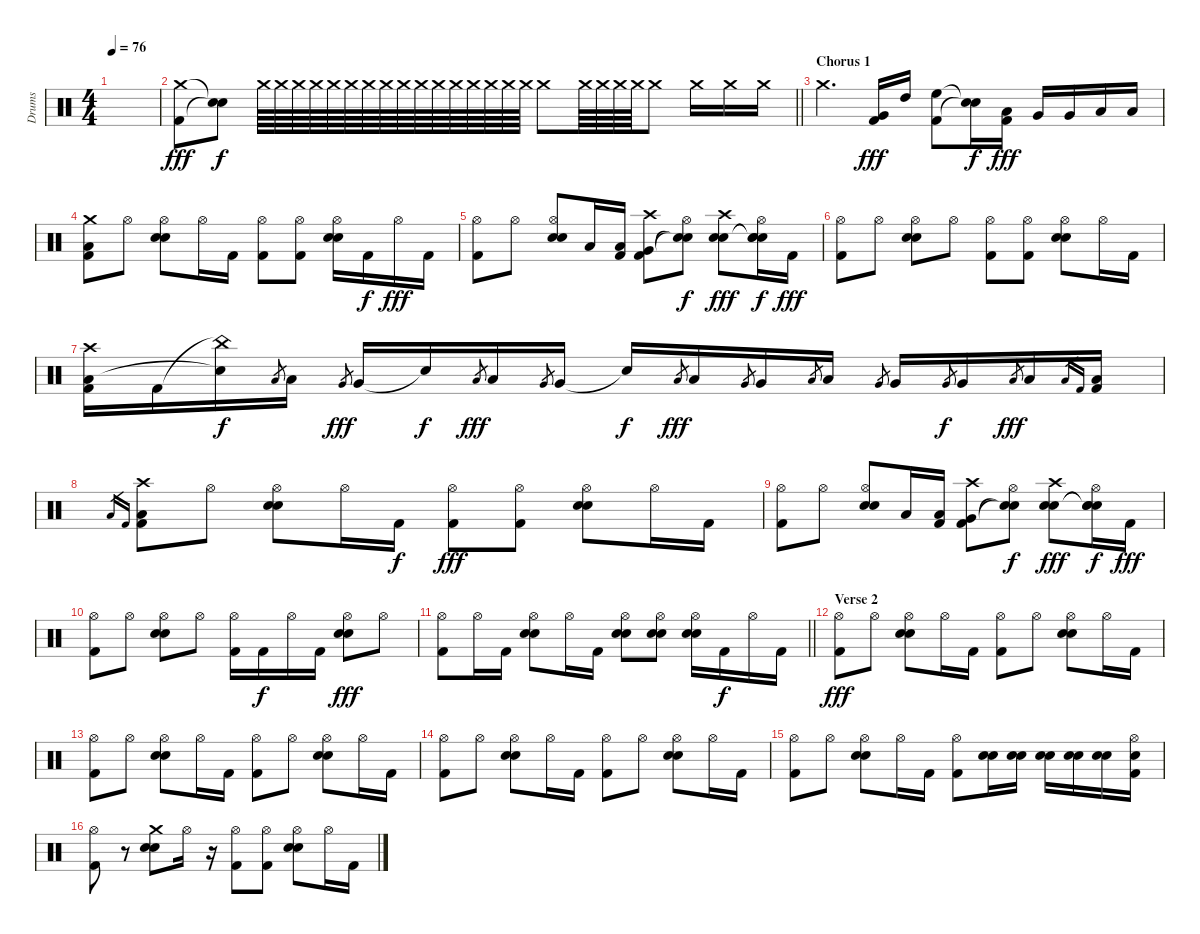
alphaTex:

\track ("Drums" "Drums") {instrument percussion}
\staff {score}
\articulation defaults
\ts (4 4)
\tempo 76
\clef neutral
\ks c
|
\barLineRight lightlight
("Crash medium (hit)" "Kick (hit) 2").8{dy fff} ("Snare (hit)"{t} "Snare (hit)"{t}).8{dy f} "Crash medium (hit)".64 "Crash medium (hit)".64 "Crash medium (hit)".64 "Crash medium (hit)".64 "Crash medium (hit)".64 "Crash medium (hit)".64 "Crash medium (hit)".64 "Crash medium (hit)".64 "Crash medium (hit)".64 "Crash medium (hit)".64 "Crash medium (hit)".64 "Crash medium (hit)".64 "Crash medium (hit)".64 "Crash medium (hit)".64 "Crash medium (hit)".64 "Crash medium (hit)".64 "Crash medium (hit)".8 "Crash medium (hit)".64 "Crash medium (hit)".64 "Crash medium (hit)".64 "Crash medium (hit)".64 "Crash medium (hit)".8 "Crash medium (hit)".16 "Crash medium (hit)".16 "Crash medium (hit)".16 |
\section ("" "Chorus 1")
"Crash medium (hit)".4{d} ("Very Low Tom (hit)" "Kick (hit) 2").16{dy fff} "High Tom (hit)".16 ("High Floor Tom (hit)" "Kick (hit) 2").8 ("Snare (hit)"{t} "Snare (hit)"{t}).16{dy f} ("Low Floor Tom (hit)" "Kick (hit) 2").16{dy fff} "Very Low Tom (hit)".16 "Very Low Tom (hit)".16 "Low Tom (hit)".16 "Low Tom (hit)".16 |
("Crash medium (hit)" "Low Floor Tom (hit)" "Kick (hit) 2").8 "Hi-Hat (open)".8 ("Hi-Hat (open)" "Snare (hit) 2" "Electric Snare (hit)").8 "Hi-Hat (open)".16 "Kick (hit) 2".16 ("Hi-Hat (open)" "Kick (hit) 2").8 ("Hi-Hat (open)" "Kick (hit) 2").8 ("Hi-Hat (open)" "Snare (hit) 2" "Electric Snare (hit)").16 "Kick (hit) 2".16{dy f} "Hi-Hat (open)".16{dy fff} "Kick (hit) 2".16 |
("Hi-Hat (open)" "Kick (hit) 2").8 "Hi-Hat (open)".8 ("Hi-Hat (open)" "Snare (hit) 2" "Electric Snare (hit)").8 "Low Floor Tom (hit)".16 ("Low Floor Tom (hit)" "Kick (hit) 2").16 ("Crash high (hit)" "Very Low Tom (hit)" "Kick (hit) 2").8 ("Hi-Hat (open)" "Snare (hit)"{t} "Snare (hit)"{t}).8{dy f} ("Crash high (hit)" "Snare (hit) 2" "Electric Snare (hit)").8{dy fff} ("Hi-Hat (open)" "Snare (hit)"{t} "Snare (hit)"{t} "Snare (hit)").16{dy f} "Kick (hit) 2".16{dy fff} |
("Hi-Hat (open)" "Kick (hit) 2").8 "Hi-Hat (open)".8 ("Hi-Hat (open)" "Snare (hit) 2" "Electric Snare (hit)").8 "Hi-Hat (open)".8 ("Hi-Hat (open)" "Kick (hit) 2").8 ("Hi-Hat (open)" "Kick (hit) 2").8 ("Hi-Hat (open)" "Snare (hit) 2" "Electric Snare (hit)").8 "Hi-Hat (open)".16 "Kick (hit) 2".16 |
("Crash high (hit)" "Low Floor Tom (hit)" "Kick (hit) 2").16 "Kick (hit) 2".16 ("China (hit)"{t} "Snare (hit)"{t}).16{dy f} "Low Floor Tom (hit)".8{gr} "Low Floor Tom (hit)".16 "Very Low Tom (hit)".8{gr dy fff} "Very Low Tom (hit)".16 "Snare (hit)"{t}.16{dy f} "Low Floor Tom (hit)".8{gr dy fff} "Low Floor Tom (hit)".16 "Very Low Tom (hit)".8{gr} "Very Low Tom (hit)".16 "Snare (hit) 2"{t}.16{dy f} "Low Floor Tom (hit)".8{gr dy fff} "Low Floor Tom (hit)".16 "Very Low Tom (hit)".8{gr} "Very Low Tom (hit)".16 "Low Floor Tom (hit)".8{gr} "Low Floor Tom (hit)".16 "Very Low Tom (hit)".8{gr} "Very Low Tom (hit)".16 "Very Low Tom (hit)".8{gr dy f} "Very Low Tom (hit)".16 "Low Floor Tom (hit)".8{gr dy fff} "Low Floor Tom (hit)".16 "Low Floor Tom (hit)".16{gr} "Kick (hit) 2".16{gr} ("Low Floor Tom (hit)" "Kick (hit) 2").16 |
"Low Floor Tom (hit)".16{gr} "Kick (hit) 2".16{gr} ("Crash high (hit)" "Low Floor Tom (hit)" "Kick (hit) 2").8 "Hi-Hat (open)".8 ("Hi-Hat (open)" "Snare (hit) 2" "Electric Snare (hit)").8 "Hi-Hat (open)".16 "Kick (hit) 2".16{dy f} ("Hi-Hat (open)" "Kick (hit) 2").8{dy fff} ("Hi-Hat (open)" "Kick (hit) 2").8 ("Hi-Hat (open)" "Snare (hit) 2" "Electric Snare (hit)").8 "Hi-Hat (open)".16 "Kick (hit) 2".16 |
("Hi-Hat (open)" "Kick (hit) 2").8 "Hi-Hat (open)".8 ("Hi-Hat (open)" "Snare (hit) 2" "Electric Snare (hit)").8 "Low Floor Tom (hit)".16 ("Low Floor Tom (hit)" "Kick (hit) 2").16 ("Crash high (hit)" "Very Low Tom (hit)" "Kick (hit) 2").8 ("Hi-Hat (open)" "Snare (hit)"{t} "Snare (hit)"{t}).8{dy f} ("Crash high (hit)" "Snare (hit) 2" "Electric Snare (hit)").8{dy fff} ("Hi-Hat (open)" "Snare (hit)"{t} "Snare (hit)"{t} "Snare (hit)").16{dy f} "Kick (hit) 2".16{dy fff} |
("Hi-Hat (open)" "Kick (hit) 2").8 "Hi-Hat (open)".8 ("Hi-Hat (open)" "Snare (hit) 2" "Electric Snare (hit)").8 "Hi-Hat (open)".8 ("Hi-Hat (open)" "Kick (hit) 2").16 "Kick (hit) 2".16{dy f} "Hi-Hat (open)".16 "Kick (hit) 2".16 ("Hi-Hat (open)" "Snare (hit) 2" "Electric Snare (hit)").8{dy fff} "Hi-Hat (open)".8 |
\barLineRight lightlight
("Hi-Hat (open)" "Kick (hit) 2").8 "Hi-Hat (open)".16 "Kick (hit) 2".16 ("Hi-Hat (open)" "Snare (hit) 2" "Electric Snare (hit)").8 "Hi-Hat (open)".16 "Kick (hit) 2".16 ("Hi-Hat (open)" "Snare (hit) 2" "Electric Snare (hit)").8 ("Hi-Hat (open)" "Snare (hit) 2" "Electric Snare (hit)").8 ("Hi-Hat (open)" "Snare (hit) 2" "Electric Snare (hit)").16 "Kick (hit) 2".16{dy f} "Hi-Hat (open)".16 "Kick (hit) 2".16 |
\section ("" "Verse 2")
("Hi-Hat (open)" "Kick (hit) 2").8{dy fff} "Hi-Hat (open)".8 ("Hi-Hat (open)" "Snare (hit) 2" "Electric Snare (hit)").8 "Hi-Hat (open)".16 "Kick (hit) 2".16 ("Hi-Hat (open)" "Kick (hit) 2").8 "Hi-Hat (open)".8 ("Hi-Hat (open)" "Snare (hit) 2" "Electric Snare (hit)").8 "Hi-Hat (open)".16 "Kick (hit) 2".16 |
("Hi-Hat (open)" "Kick (hit) 2").8 "Hi-Hat (open)".8 ("Hi-Hat (open)" "Snare (hit) 2" "Electric Snare (hit)").8 "Hi-Hat (open)".16 "Kick (hit) 2".16 ("Hi-Hat (open)" "Kick (hit) 2").8 "Hi-Hat (open)".8 ("Hi-Hat (open)" "Snare (hit) 2" "Electric Snare (hit)").8 "Hi-Hat (open)".16 "Kick (hit) 2".16 |
("Hi-Hat (open)" "Kick (hit) 2").8 "Hi-Hat (open)".8 ("Hi-Hat (open)" "Snare (hit) 2" "Electric Snare (hit)").8 "Hi-Hat (open)".16 "Kick (hit) 2".16 ("Hi-Hat (open)" "Kick (hit) 2").8 "Hi-Hat (open)".8 ("Hi-Hat (open)" "Snare (hit) 2" "Electric Snare (hit)").8 "Hi-Hat (open)".16 "Kick (hit) 2".16 |
("Hi-Hat (open)" "Kick (hit) 2").8 "Hi-Hat (open)".8 ("Hi-Hat (open)" "Snare (hit) 2" "Electric Snare (hit)").8 "Hi-Hat (open)".16 "Kick (hit) 2".16 ("Hi-Hat (open)" "Kick (hit) 2").8 ("Snare (hit) 2" "Electric Snare (hit)").16 ("Snare (hit) 2" "Electric Snare (hit)").16 ("Snare (hit) 2" "Electric Snare (hit)").16 ("Snare (hit) 2" "Electric Snare (hit)").16 ("Snare (hit) 2" "Electric Snare (hit)").16 ("Hi-Hat (open)" "Snare (hit) 2" "Kick (hit) 2").16 |
("Hi-Hat (open)" "Kick (hit) 2").8 r.8 ("Crash medium (hit)" "Snare (hit) 2" "Electric Snare (hit)").8 "Hi-Hat (open)".16 r.16 ("Hi-Hat (open)" "Kick (hit) 2").8 ("Hi-Hat (open)" "Kick (hit) 2").8 ("Hi-Hat (open)" "Snare (hit) 2" "Electric Snare (hit)").8 "Hi-Hat (open)".16 "Kick (hit) 2".16
